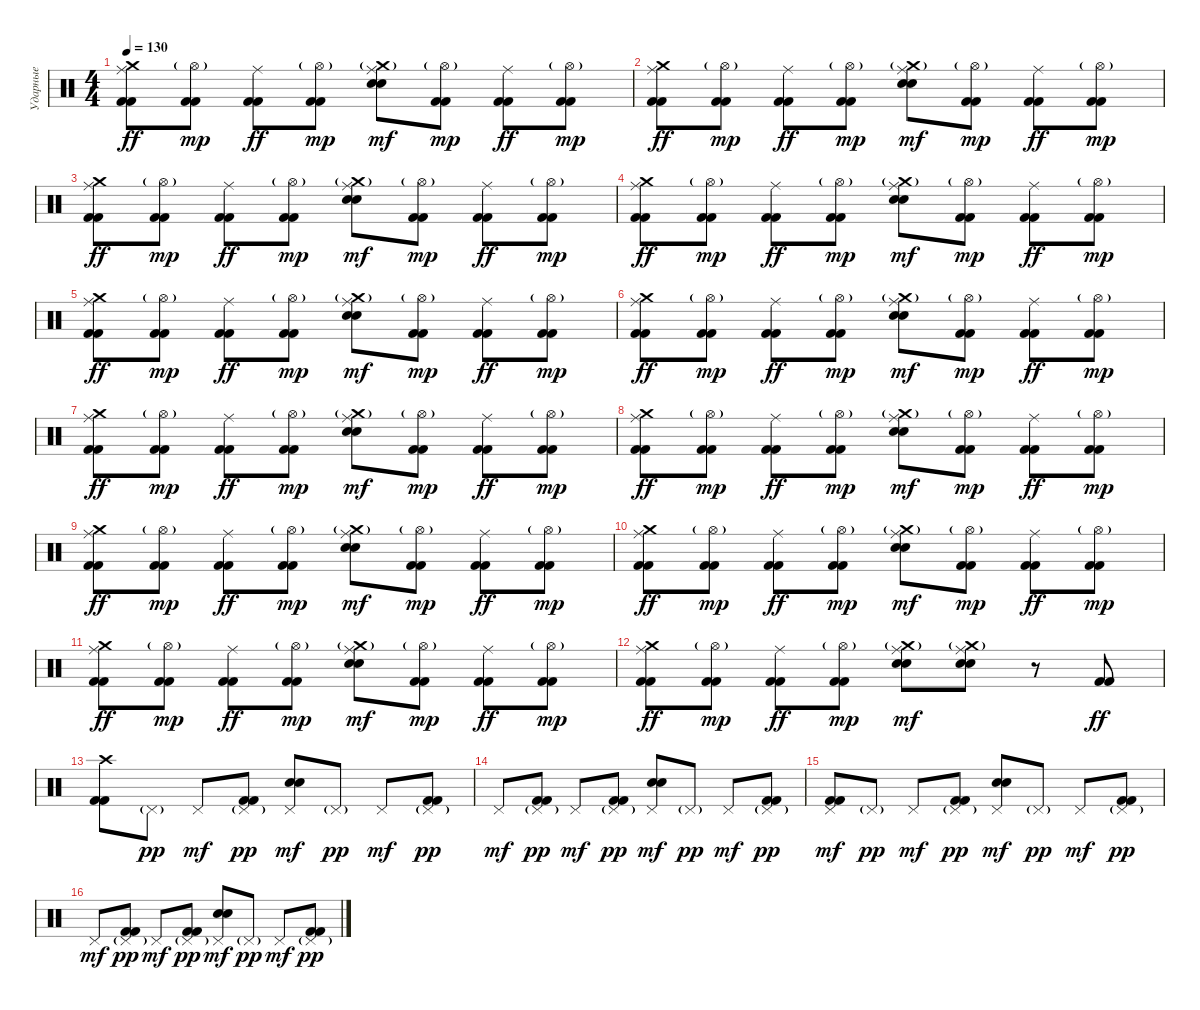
\track ("Ударные" "Ударные") {instrument percussion}
\staff {score}
\articulation defaults
\ts (4 4)
\tempo 130
\clef neutral
\ks c
("Kick (hit) 2" "Kick (hit) 2" "Ride (middle)" "Crash medium (hit)").8{dy ff} ("Kick (hit) 2" "Kick (hit) 2" "Hi-Hat (open)"{g}).8{dy mp} ("Kick (hit) 2" "Kick (hit) 2" "Ride (middle)").8{dy ff} ("Kick (hit) 2" "Kick (hit) 2" "Hi-Hat (open)"{g}).8{dy mp} ("Electric Snare (hit)" "Snare (hit) 2" "Ride (middle)" "Crash medium (hit)"{g}).8{dy mf} ("Kick (hit) 2" "Kick (hit) 2" "Hi-Hat (open)"{g}).8{dy mp} ("Kick (hit) 2" "Kick (hit) 2" "Ride (middle)").8{dy ff} ("Kick (hit) 2" "Kick (hit) 2" "Hi-Hat (open)"{g}).8{dy mp} |
("Kick (hit) 2" "Kick (hit) 2" "Ride (middle)" "Crash medium (hit)").8{dy ff} ("Kick (hit) 2" "Kick (hit) 2" "Hi-Hat (open)"{g}).8{dy mp} ("Kick (hit) 2" "Kick (hit) 2" "Ride (middle)").8{dy ff} ("Kick (hit) 2" "Kick (hit) 2" "Hi-Hat (open)"{g}).8{dy mp} ("Electric Snare (hit)" "Snare (hit) 2" "Ride (middle)" "Crash medium (hit)"{g}).8{dy mf} ("Kick (hit) 2" "Kick (hit) 2" "Hi-Hat (open)"{g}).8{dy mp} ("Kick (hit) 2" "Kick (hit) 2" "Ride (middle)").8{dy ff} ("Kick (hit) 2" "Kick (hit) 2" "Hi-Hat (open)"{g}).8{dy mp} |
("Kick (hit) 2" "Kick (hit) 2" "Ride (middle)" "Crash medium (hit)").8{dy ff} ("Kick (hit) 2" "Kick (hit) 2" "Hi-Hat (open)"{g}).8{dy mp} ("Kick (hit) 2" "Kick (hit) 2" "Ride (middle)").8{dy ff} ("Kick (hit) 2" "Kick (hit) 2" "Hi-Hat (open)"{g}).8{dy mp} ("Electric Snare (hit)" "Snare (hit) 2" "Ride (middle)" "Crash medium (hit)"{g}).8{dy mf} ("Kick (hit) 2" "Kick (hit) 2" "Hi-Hat (open)"{g}).8{dy mp} ("Kick (hit) 2" "Kick (hit) 2" "Ride (middle)").8{dy ff} ("Kick (hit) 2" "Kick (hit) 2" "Hi-Hat (open)"{g}).8{dy mp} |
("Kick (hit) 2" "Kick (hit) 2" "Ride (middle)" "Crash medium (hit)").8{dy ff} ("Kick (hit) 2" "Kick (hit) 2" "Hi-Hat (open)"{g}).8{dy mp} ("Kick (hit) 2" "Kick (hit) 2" "Ride (middle)").8{dy ff} ("Kick (hit) 2" "Kick (hit) 2" "Hi-Hat (open)"{g}).8{dy mp} ("Electric Snare (hit)" "Snare (hit) 2" "Ride (middle)" "Crash medium (hit)"{g}).8{dy mf} ("Kick (hit) 2" "Kick (hit) 2" "Hi-Hat (open)"{g}).8{dy mp} ("Kick (hit) 2" "Kick (hit) 2" "Ride (middle)").8{dy ff} ("Kick (hit) 2" "Kick (hit) 2" "Hi-Hat (open)"{g}).8{dy mp} |
("Kick (hit) 2" "Kick (hit) 2" "Ride (middle)" "Crash medium (hit)").8{dy ff} ("Kick (hit) 2" "Kick (hit) 2" "Hi-Hat (open)"{g}).8{dy mp} ("Kick (hit) 2" "Kick (hit) 2" "Ride (middle)").8{dy ff} ("Kick (hit) 2" "Kick (hit) 2" "Hi-Hat (open)"{g}).8{dy mp} ("Electric Snare (hit)" "Snare (hit) 2" "Ride (middle)" "Crash medium (hit)"{g}).8{dy mf} ("Kick (hit) 2" "Kick (hit) 2" "Hi-Hat (open)"{g}).8{dy mp} ("Kick (hit) 2" "Kick (hit) 2" "Ride (middle)").8{dy ff} ("Kick (hit) 2" "Kick (hit) 2" "Hi-Hat (open)"{g}).8{dy mp} |
("Kick (hit) 2" "Kick (hit) 2" "Ride (middle)" "Crash medium (hit)").8{dy ff} ("Kick (hit) 2" "Kick (hit) 2" "Hi-Hat (open)"{g}).8{dy mp} ("Kick (hit) 2" "Kick (hit) 2" "Ride (middle)").8{dy ff} ("Kick (hit) 2" "Kick (hit) 2" "Hi-Hat (open)"{g}).8{dy mp} ("Electric Snare (hit)" "Snare (hit) 2" "Ride (middle)" "Crash medium (hit)"{g}).8{dy mf} ("Kick (hit) 2" "Kick (hit) 2" "Hi-Hat (open)"{g}).8{dy mp} ("Kick (hit) 2" "Kick (hit) 2" "Ride (middle)").8{dy ff} ("Kick (hit) 2" "Kick (hit) 2" "Hi-Hat (open)"{g}).8{dy mp} |
("Kick (hit) 2" "Kick (hit) 2" "Ride (middle)" "Crash medium (hit)").8{dy ff} ("Kick (hit) 2" "Kick (hit) 2" "Hi-Hat (open)"{g}).8{dy mp} ("Kick (hit) 2" "Kick (hit) 2" "Ride (middle)").8{dy ff} ("Kick (hit) 2" "Kick (hit) 2" "Hi-Hat (open)"{g}).8{dy mp} ("Electric Snare (hit)" "Snare (hit) 2" "Ride (middle)" "Crash medium (hit)"{g}).8{dy mf} ("Kick (hit) 2" "Kick (hit) 2" "Hi-Hat (open)"{g}).8{dy mp} ("Kick (hit) 2" "Kick (hit) 2" "Ride (middle)").8{dy ff} ("Kick (hit) 2" "Kick (hit) 2" "Hi-Hat (open)"{g}).8{dy mp} |
("Kick (hit) 2" "Kick (hit) 2" "Ride (middle)" "Crash medium (hit)").8{dy ff} ("Kick (hit) 2" "Kick (hit) 2" "Hi-Hat (open)"{g}).8{dy mp} ("Kick (hit) 2" "Kick (hit) 2" "Ride (middle)").8{dy ff} ("Kick (hit) 2" "Kick (hit) 2" "Hi-Hat (open)"{g}).8{dy mp} ("Electric Snare (hit)" "Snare (hit) 2" "Ride (middle)" "Crash medium (hit)"{g}).8{dy mf} ("Kick (hit) 2" "Kick (hit) 2" "Hi-Hat (open)"{g}).8{dy mp} ("Kick (hit) 2" "Kick (hit) 2" "Ride (middle)").8{dy ff} ("Kick (hit) 2" "Kick (hit) 2" "Hi-Hat (open)"{g}).8{dy mp} |
("Kick (hit) 2" "Kick (hit) 2" "Ride (middle)" "Crash medium (hit)").8{dy ff} ("Kick (hit) 2" "Kick (hit) 2" "Hi-Hat (open)"{g}).8{dy mp} ("Kick (hit) 2" "Kick (hit) 2" "Ride (middle)").8{dy ff} ("Kick (hit) 2" "Kick (hit) 2" "Hi-Hat (open)"{g}).8{dy mp} ("Electric Snare (hit)" "Snare (hit) 2" "Ride (middle)" "Crash medium (hit)"{g}).8{dy mf} ("Kick (hit) 2" "Kick (hit) 2" "Hi-Hat (open)"{g}).8{dy mp} ("Kick (hit) 2" "Kick (hit) 2" "Ride (middle)").8{dy ff} ("Kick (hit) 2" "Kick (hit) 2" "Hi-Hat (open)"{g}).8{dy mp} |
("Kick (hit) 2" "Kick (hit) 2" "Ride (middle)" "Crash medium (hit)").8{dy ff} ("Kick (hit) 2" "Kick (hit) 2" "Hi-Hat (open)"{g}).8{dy mp} ("Kick (hit) 2" "Kick (hit) 2" "Ride (middle)").8{dy ff} ("Kick (hit) 2" "Kick (hit) 2" "Hi-Hat (open)"{g}).8{dy mp} ("Electric Snare (hit)" "Snare (hit) 2" "Ride (middle)" "Crash medium (hit)"{g}).8{dy mf} ("Kick (hit) 2" "Kick (hit) 2" "Hi-Hat (open)"{g}).8{dy mp} ("Kick (hit) 2" "Kick (hit) 2" "Ride (middle)").8{dy ff} ("Kick (hit) 2" "Kick (hit) 2" "Hi-Hat (open)"{g}).8{dy mp} |
("Kick (hit) 2" "Kick (hit) 2" "Ride (middle)" "Crash medium (hit)").8{dy ff} ("Kick (hit) 2" "Kick (hit) 2" "Hi-Hat (open)"{g}).8{dy mp} ("Kick (hit) 2" "Kick (hit) 2" "Ride (middle)").8{dy ff} ("Kick (hit) 2" "Kick (hit) 2" "Hi-Hat (open)"{g}).8{dy mp} ("Electric Snare (hit)" "Snare (hit) 2" "Ride (middle)" "Crash medium (hit)"{g}).8{dy mf} ("Kick (hit) 2" "Kick (hit) 2" "Hi-Hat (open)"{g}).8{dy mp} ("Kick (hit) 2" "Kick (hit) 2" "Ride (middle)").8{dy ff} ("Kick (hit) 2" "Kick (hit) 2" "Hi-Hat (open)"{g}).8{dy mp} |
("Kick (hit) 2" "Kick (hit) 2" "Ride (middle)" "Crash medium (hit)").8{dy ff} ("Kick (hit) 2" "Kick (hit) 2" "Hi-Hat (open)"{g}).8{dy mp} ("Kick (hit) 2" "Kick (hit) 2" "Ride (middle)").8{dy ff} ("Kick (hit) 2" "Kick (hit) 2" "Hi-Hat (open)"{g}).8{dy mp} ("Electric Snare (hit)" "Snare (hit) 2" "Ride (middle)" "Crash medium (hit)"{g}).8{dy mf} ("Electric Snare (hit)" "Snare (hit) 2" "Ride (middle)" "Crash medium (hit)"{g}).8 r.8 ("Kick (hit) 2" "Kick (hit) 2").8{dy ff} |
("Kick (hit) 2" "Kick (hit) 2" "Crash high (hit)").8 "Pedal Hi-Hat (hit)"{g}.8{dy pp} "Pedal Hi-Hat (hit)".8{dy mf} ("Kick (hit) 2" "Kick (hit) 2" "Pedal Hi-Hat (hit)"{g}).8{dy pp} ("Electric Snare (hit)" "Snare (hit) 2" "Pedal Hi-Hat (hit)").8{dy mf} "Pedal Hi-Hat (hit)"{g}.8{dy pp} "Pedal Hi-Hat (hit)".8{dy mf} ("Kick (hit) 2" "Kick (hit) 2" "Pedal Hi-Hat (hit)"{g}).8{dy pp} |
"Pedal Hi-Hat (hit)".8{dy mf} ("Kick (hit) 2" "Kick (hit) 2" "Pedal Hi-Hat (hit)"{g}).8{dy pp} "Pedal Hi-Hat (hit)".8{dy mf} ("Kick (hit) 2" "Kick (hit) 2" "Pedal Hi-Hat (hit)"{g}).8{dy pp} ("Electric Snare (hit)" "Snare (hit) 2" "Pedal Hi-Hat (hit)").8{dy mf} "Pedal Hi-Hat (hit)"{g}.8{dy pp} "Pedal Hi-Hat (hit)".8{dy mf} ("Kick (hit) 2" "Kick (hit) 2" "Pedal Hi-Hat (hit)"{g}).8{dy pp} |
("Kick (hit) 2" "Kick (hit) 2" "Pedal Hi-Hat (hit)").8{dy mf} "Pedal Hi-Hat (hit)"{g}.8{dy pp} "Pedal Hi-Hat (hit)".8{dy mf} ("Kick (hit) 2" "Kick (hit) 2" "Pedal Hi-Hat (hit)"{g}).8{dy pp} ("Electric Snare (hit)" "Snare (hit) 2" "Pedal Hi-Hat (hit)").8{dy mf} "Pedal Hi-Hat (hit)"{g}.8{dy pp} "Pedal Hi-Hat (hit)".8{dy mf} ("Kick (hit) 2" "Kick (hit) 2" "Pedal Hi-Hat (hit)"{g}).8{dy pp} |
"Pedal Hi-Hat (hit)".8{dy mf} ("Kick (hit) 2" "Kick (hit) 2" "Pedal Hi-Hat (hit)"{g}).8{dy pp} "Pedal Hi-Hat (hit)".8{dy mf} ("Kick (hit) 2" "Kick (hit) 2" "Pedal Hi-Hat (hit)"{g}).8{dy pp} ("Electric Snare (hit)" "Snare (hit) 2" "Pedal Hi-Hat (hit)").8{dy mf} "Pedal Hi-Hat (hit)"{g}.8{dy pp} "Pedal Hi-Hat (hit)".8{dy mf} ("Kick (hit) 2" "Kick (hit) 2" "Pedal Hi-Hat (hit)"{g}).8{dy pp}
